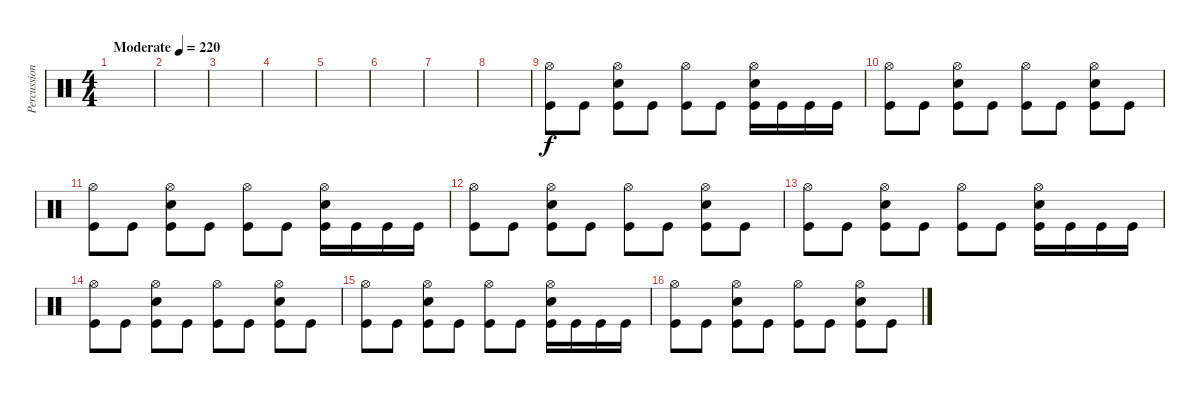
\track ("Percussion" "Percussion") {instrument percussion}
\staff {score}
\articulation defaults
\ts (4 4)
\tempo (220 "Moderate")
\clef neutral
\ks c
|
|
|
|
|
|
|
|
("Hi-Hat (open)" "Kick (hit)").8 "Kick (hit)".8 ("Hi-Hat (open)" "Snare (hit) 2" "Kick (hit)").8 "Kick (hit)".8 ("Hi-Hat (open)" "Kick (hit)").8 "Kick (hit)".8 ("Hi-Hat (open)" "Snare (hit) 2" "Kick (hit)").16 "Kick (hit)".16 "Kick (hit)".16 "Kick (hit)".16 |
("Hi-Hat (open)" "Kick (hit)").8 "Kick (hit)".8 ("Hi-Hat (open)" "Snare (hit) 2" "Kick (hit)").8 "Kick (hit)".8 ("Hi-Hat (open)" "Kick (hit)").8 "Kick (hit)".8 ("Hi-Hat (open)" "Snare (hit) 2" "Kick (hit)").8 "Kick (hit)".8 |
("Hi-Hat (open)" "Kick (hit)").8 "Kick (hit)".8 ("Hi-Hat (open)" "Snare (hit) 2" "Kick (hit)").8 "Kick (hit)".8 ("Hi-Hat (open)" "Kick (hit)").8 "Kick (hit)".8 ("Hi-Hat (open)" "Snare (hit) 2" "Kick (hit)").16 "Kick (hit)".16 "Kick (hit)".16 "Kick (hit)".16 |
("Hi-Hat (open)" "Kick (hit)").8 "Kick (hit)".8 ("Hi-Hat (open)" "Snare (hit) 2" "Kick (hit)").8 "Kick (hit)".8 ("Hi-Hat (open)" "Kick (hit)").8 "Kick (hit)".8 ("Hi-Hat (open)" "Snare (hit) 2" "Kick (hit)").8 "Kick (hit)".8 |
("Hi-Hat (open)" "Kick (hit)").8 "Kick (hit)".8 ("Hi-Hat (open)" "Snare (hit) 2" "Kick (hit)").8 "Kick (hit)".8 ("Hi-Hat (open)" "Kick (hit)").8 "Kick (hit)".8 ("Hi-Hat (open)" "Snare (hit) 2" "Kick (hit)").16 "Kick (hit)".16 "Kick (hit)".16 "Kick (hit)".16 |
("Hi-Hat (open)" "Kick (hit)").8 "Kick (hit)".8 ("Hi-Hat (open)" "Snare (hit) 2" "Kick (hit)").8 "Kick (hit)".8 ("Hi-Hat (open)" "Kick (hit)").8 "Kick (hit)".8 ("Hi-Hat (open)" "Snare (hit) 2" "Kick (hit)").8 "Kick (hit)".8 |
("Hi-Hat (open)" "Kick (hit)").8 "Kick (hit)".8 ("Hi-Hat (open)" "Snare (hit) 2" "Kick (hit)").8 "Kick (hit)".8 ("Hi-Hat (open)" "Kick (hit)").8 "Kick (hit)".8 ("Hi-Hat (open)" "Snare (hit) 2" "Kick (hit)").16 "Kick (hit)".16 "Kick (hit)".16 "Kick (hit)".16 |
("Hi-Hat (open)" "Kick (hit)").8 "Kick (hit)".8 ("Hi-Hat (open)" "Snare (hit) 2" "Kick (hit)").8 "Kick (hit)".8 ("Hi-Hat (open)" "Kick (hit)").8 "Kick (hit)".8 ("Hi-Hat (open)" "Snare (hit) 2" "Kick (hit)").8 "Kick (hit)".8
